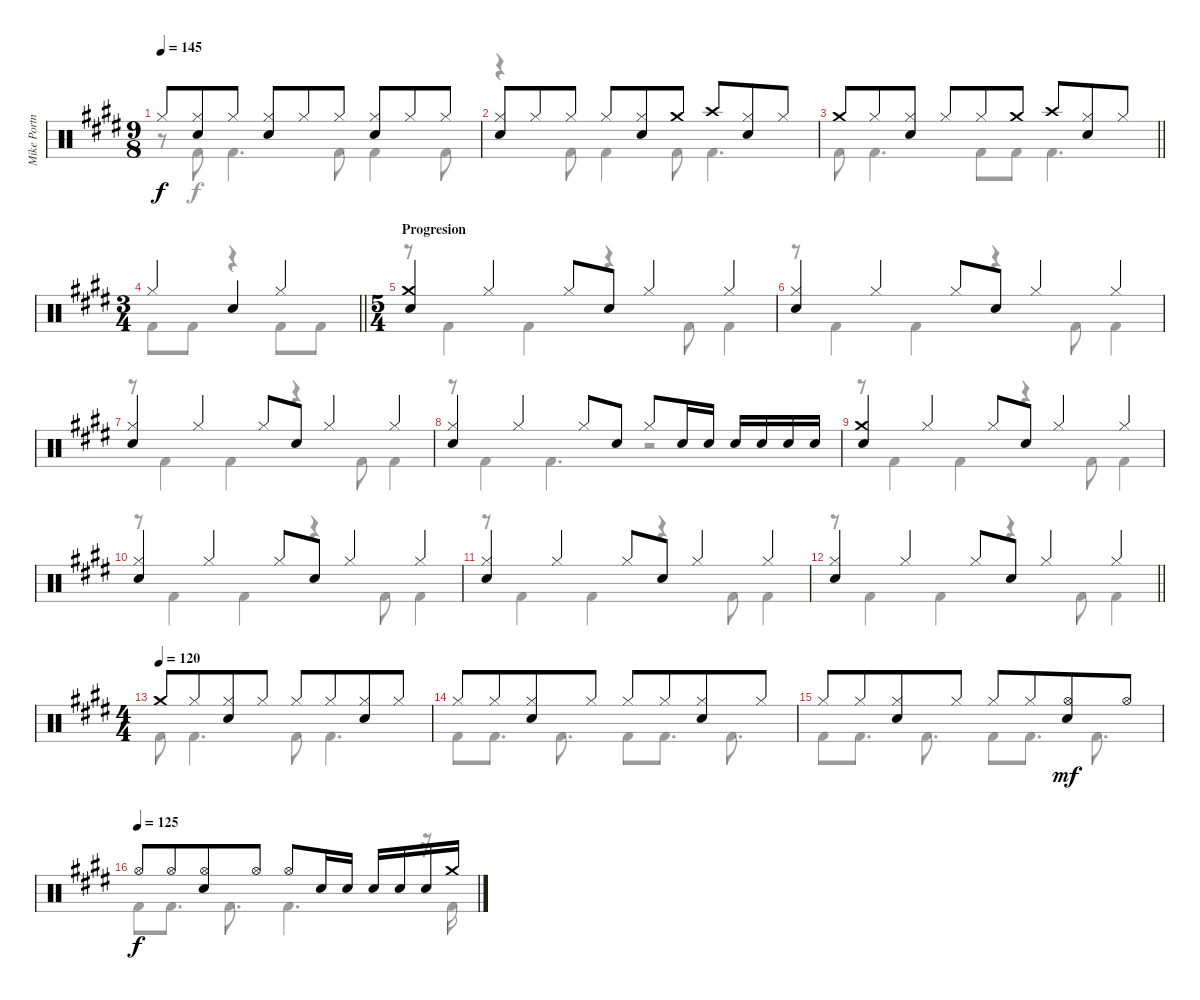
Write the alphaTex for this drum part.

\track ("Mike Portnoy" "Mike Portn") {instrument percussion}
\staff {score}
\articulation defaults
\voice
\ts (9 8)
\tempo 145
\clef neutral
\ks e "Hi-Hat (closed)".8{dy f}
("Hi-Hat (closed)" "Snare (hit) 2").8 "Hi-Hat (closed)".8 ("Hi-Hat (closed)" "Snare (hit) 2").8 "Hi-Hat (closed)".8 "Hi-Hat (closed)".8 ("Hi-Hat (closed)" "Snare (hit) 2").8 "Hi-Hat (closed)".8 "Hi-Hat (closed)".8 |
("Hi-Hat (closed)" "Snare (hit) 2").8 "Hi-Hat (closed)".8 "Hi-Hat (closed)".8 "Hi-Hat (closed)".8 ("Hi-Hat (closed)" "Snare (hit) 2").8 "Crash medium (hit)".8 "Crash high (hit)".8 ("Hi-Hat (closed)" "Snare (hit) 2").8 "Hi-Hat (closed)".8 |
\barLineRight lightlight "Crash medium (hit)".8 "Hi-Hat (closed)".8
("Hi-Hat (closed)" "Snare (hit) 2").8 "Hi-Hat (closed)".8 "Hi-Hat (closed)".8 "Crash medium (hit)".8 "Crash high (hit)".8 ("Hi-Hat (closed)" "Snare (hit) 2").8 "Hi-Hat (closed)".8 |
\ts (3 4)
\barLineRight lightlight "Hi-Hat (closed)".4 "Snare (hit) 2".4 "Hi-Hat (closed)".4
|
\ts (5 4)
\section ("" "Progresion")
("Crash medium (hit)" "Snare (hit) 2").4 "Hi-Hat (closed)".4 "Hi-Hat (closed)".8 "Snare (hit) 2".8 "Hi-Hat (closed)".4 "Hi-Hat (closed)".4 |
("Hi-Hat (closed)" "Snare (hit) 2").4 "Hi-Hat (closed)".4 "Hi-Hat (closed)".8 "Snare (hit) 2".8 "Hi-Hat (closed)".4 "Hi-Hat (closed)".4 |
("Hi-Hat (closed)" "Snare (hit) 2").4 "Hi-Hat (closed)".4 "Hi-Hat (closed)".8 "Snare (hit) 2".8 "Hi-Hat (closed)".4 "Hi-Hat (closed)".4 |
("Hi-Hat (closed)" "Snare (hit) 2").4 "Hi-Hat (closed)".4 "Hi-Hat (closed)".8 "Snare (hit) 2".8 "Hi-Hat (closed)".8 "Snare (hit) 2".16 "Snare (hit) 2".16 "Snare (hit) 2".16 "Snare (hit) 2".16 "Snare (hit) 2".16 "Snare (hit) 2".16 |
("Crash medium (hit)" "Snare (hit) 2").4 "Hi-Hat (closed)".4 "Hi-Hat (closed)".8 "Snare (hit) 2".8 "Hi-Hat (closed)".4 "Hi-Hat (closed)".4 |
("Hi-Hat (closed)" "Snare (hit) 2").4 "Hi-Hat (closed)".4 "Hi-Hat (closed)".8 "Snare (hit) 2".8 "Hi-Hat (closed)".4 "Hi-Hat (closed)".4 |
("Hi-Hat (closed)" "Snare (hit) 2").4 "Hi-Hat (closed)".4 "Hi-Hat (closed)".8 "Snare (hit) 2".8 "Hi-Hat (closed)".4 "Hi-Hat (closed)".4 |
\barLineRight lightlight
("Hi-Hat (closed)" "Snare (hit) 2").4 "Hi-Hat (closed)".4 "Hi-Hat (closed)".8 "Snare (hit) 2".8 "Hi-Hat (closed)".4 "Hi-Hat (closed)".4 |
\ts (4 4)
\tempo (120)
"Crash medium (hit)".8 "Hi-Hat (closed)".8{beam merge} ("Hi-Hat (closed)" "Snare (hit) 2").8 "Hi-Hat (closed)".8 "Hi-Hat (closed)".8 "Hi-Hat (closed)".8{beam merge} ("Hi-Hat (closed)" "Snare (hit) 2").8 "Hi-Hat (closed)".8 |
"Hi-Hat (closed)".8 "Hi-Hat (closed)".8{beam merge} ("Hi-Hat (closed)" "Snare (hit) 2").8 "Hi-Hat (closed)".8 "Hi-Hat (closed)".8 "Hi-Hat (closed)".8{beam merge} ("Hi-Hat (closed)" "Snare (hit) 2").8 "Hi-Hat (closed)".8 |
"Hi-Hat (closed)".8 "Hi-Hat (closed)".8{beam merge} ("Hi-Hat (closed)" "Snare (hit) 2").8 "Hi-Hat (closed)".8 "Hi-Hat (closed)".8 "Hi-Hat (closed)".8{beam merge} ("Hi-Hat (open)" "Snare (hit) 2").8{dy mf} "Hi-Hat (open)".8 |
\tempo (125)
"Hi-Hat (open)".8{dy f} "Hi-Hat (open)".8{beam merge} ("Hi-Hat (open)" "Snare (hit) 2").8 "Hi-Hat (open)".8 "Hi-Hat (open)".8 "Snare (hit) 2".16 "Snare (hit) 2".16 "Snare (hit) 2".16 "Snare (hit) 2".16 "Snare (hit) 2".16 "Crash medium (hit)".16
\voice
\clef neutral
\ottava regular
\simile none
\ks e
r.8{dy f} "Kick (hit) 2".8 "Kick (hit) 2".4{d} "Kick (hit) 2".8 "Kick (hit) 2".4 "Kick (hit) 2".8 |
r.4 "Kick (hit) 2".8 "Kick (hit) 2".4 "Kick (hit) 2".8 "Kick (hit) 2".4{d} |
\barLineRight lightlight "Kick (hit) 2".8 "Kick (hit) 2".4{d} "Kick (hit) 2".8 "Kick (hit) 2".8 "Kick (hit) 2".4{d}
|
\barLineRight lightlight "Kick (hit) 2".8 "Kick (hit) 2".8
r.4 "Kick (hit) 2".8 "Kick (hit) 2".8 |
r.8 "Kick (hit) 2".4 "Kick (hit) 2".4 r.4 "Kick (hit) 2".8 "Kick (hit) 2".4 |
r.8 "Kick (hit) 2".4 "Kick (hit) 2".4 r.4 "Kick (hit) 2".8 "Kick (hit) 2".4 |
r.8 "Kick (hit) 2".4 "Kick (hit) 2".4 r.4 "Kick (hit) 2".8 "Kick (hit) 2".4 |
r.8 "Kick (hit) 2".4 "Kick (hit) 2".4{d} r.2 |
r.8 "Kick (hit) 2".4 "Kick (hit) 2".4 r.4 "Kick (hit) 2".8 "Kick (hit) 2".4 |
r.8 "Kick (hit) 2".4 "Kick (hit) 2".4 r.4 "Kick (hit) 2".8 "Kick (hit) 2".4 |
r.8 "Kick (hit) 2".4 "Kick (hit) 2".4 r.4 "Kick (hit) 2".8 "Kick (hit) 2".4 |
\barLineRight lightlight
r.8 "Kick (hit) 2".4 "Kick (hit) 2".4 r.4 "Kick (hit) 2".8 "Kick (hit) 2".4 |
"Kick (hit) 2".8 "Kick (hit) 2".4{d} "Kick (hit) 2".8 "Kick (hit) 2".4{d} |
"Kick (hit) 2".8 "Kick (hit) 2".8{d} "Kick (hit) 2".8{d} "Kick (hit) 2".8 "Kick (hit) 2".8{d} "Kick (hit) 2".8{d} |
"Kick (hit) 2".8 "Kick (hit) 2".8{d} "Kick (hit) 2".8{d} "Kick (hit) 2".8 "Kick (hit) 2".8{d} "Kick (hit) 2".8{d} |
"Kick (hit) 2".8 "Kick (hit) 2".8{d} "Kick (hit) 2".8{d} "Kick (hit) 2".4{d} r.16 "Kick (hit) 2".16
